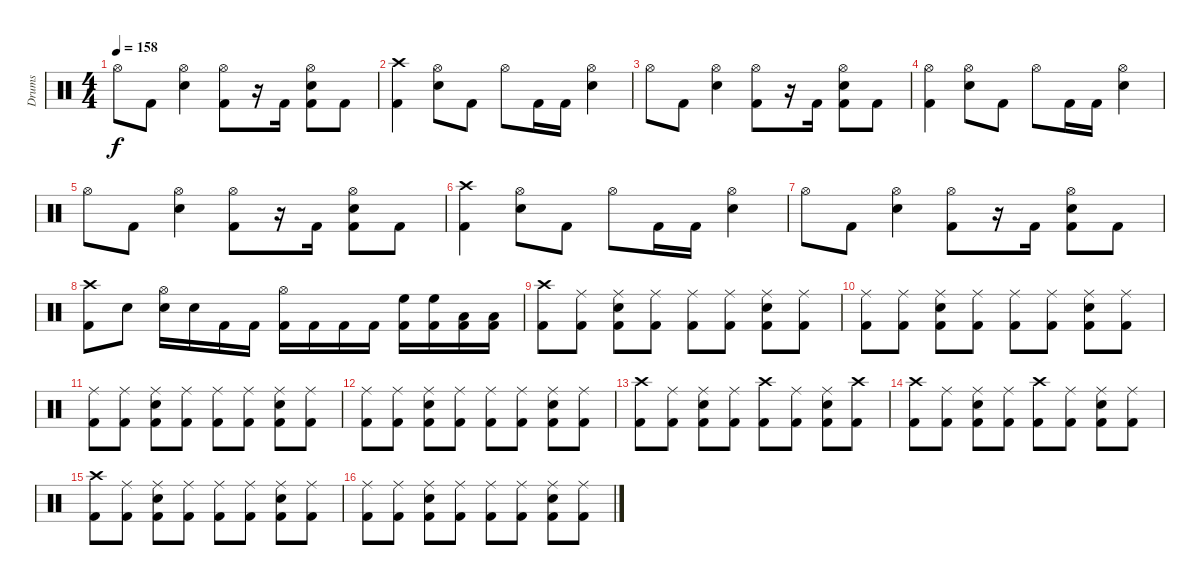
\track ("Drums" "Drums") {instrument percussion}
\staff {score}
\articulation defaults
\ts (4 4)
\tempo 158
\clef neutral
\ks c "Hi-Hat (open)".8{dy f} "Kick (hit) 2".8
("Hi-Hat (open)" "Snare (hit) 2").4 ("Hi-Hat (open)" "Kick (hit) 2").8 r.16 "Kick (hit) 2".16 ("Hi-Hat (open)" "Snare (hit) 2" "Kick (hit) 2").8 "Kick (hit) 2".8 |
("Crash high (hit)" "Kick (hit) 2").4 ("Hi-Hat (open)" "Snare (hit) 2").8 "Kick (hit) 2".8 "Hi-Hat (open)".8 "Kick (hit) 2".16 "Kick (hit) 2".16 ("Hi-Hat (open)" "Snare (hit) 2").4 |
"Hi-Hat (open)".8 "Kick (hit) 2".8 ("Hi-Hat (open)" "Snare (hit) 2").4 ("Hi-Hat (open)" "Kick (hit) 2").8 r.16 "Kick (hit) 2".16 ("Hi-Hat (open)" "Snare (hit) 2" "Kick (hit) 2").8 "Kick (hit) 2".8 |
("Hi-Hat (open)" "Kick (hit) 2").4 ("Hi-Hat (open)" "Snare (hit) 2").8 "Kick (hit) 2".8 "Hi-Hat (open)".8 "Kick (hit) 2".16 "Kick (hit) 2".16 ("Hi-Hat (open)" "Snare (hit) 2").4 |
"Hi-Hat (open)".8 "Kick (hit) 2".8 ("Hi-Hat (open)" "Snare (hit) 2").4 ("Hi-Hat (open)" "Kick (hit) 2").8 r.16 "Kick (hit) 2".16 ("Hi-Hat (open)" "Snare (hit) 2" "Kick (hit) 2").8 "Kick (hit) 2".8 |
("Crash high (hit)" "Kick (hit) 2").4 ("Hi-Hat (open)" "Snare (hit) 2").8 "Kick (hit) 2".8 "Hi-Hat (open)".8 "Kick (hit) 2".16 "Kick (hit) 2".16 ("Hi-Hat (open)" "Snare (hit) 2").4 |
"Hi-Hat (open)".8 "Kick (hit) 2".8 ("Hi-Hat (open)" "Snare (hit) 2").4 ("Hi-Hat (open)" "Kick (hit) 2").8 r.16 "Kick (hit) 2".16 ("Hi-Hat (open)" "Snare (hit) 2" "Kick (hit) 2").8 "Kick (hit) 2".8 |
("Crash high (hit)" "Kick (hit) 2").8 "Snare (hit) 2".8 ("Hi-Hat (open)" "Snare (hit) 2").16 "Snare (hit) 2".16 "Kick (hit) 2".16 "Kick (hit) 2".16 ("Hi-Hat (open)" "Kick (hit) 2").16 "Kick (hit) 2".16 "Kick (hit) 2".16 "Kick (hit) 2".16 ("High Floor Tom (hit)" "Kick (hit) 2").16 ("High Floor Tom (hit)" "Kick (hit) 2").16 ("Low Tom (hit)" "Kick (hit) 2").16 ("Low Tom (hit)" "Kick (hit) 2").16 |
("Crash high (hit)" "Kick (hit) 2").8 ("Ride (middle)" "Kick (hit) 2").8 ("Ride (middle)" "Snare (hit) 2" "Kick (hit) 2").8 ("Ride (middle)" "Kick (hit) 2").8 ("Ride (middle)" "Kick (hit) 2").8 ("Ride (middle)" "Kick (hit) 2").8 ("Ride (middle)" "Snare (hit) 2" "Kick (hit) 2").8 ("Ride (middle)" "Kick (hit) 2").8 |
("Ride (middle)" "Kick (hit) 2").8 ("Ride (middle)" "Kick (hit) 2").8 ("Ride (middle)" "Snare (hit) 2" "Kick (hit) 2").8 ("Ride (middle)" "Kick (hit) 2").8 ("Ride (middle)" "Kick (hit) 2").8 ("Ride (middle)" "Kick (hit) 2").8 ("Ride (middle)" "Snare (hit) 2" "Kick (hit) 2").8 ("Ride (middle)" "Kick (hit) 2").8 |
("Ride (middle)" "Kick (hit) 2").8 ("Ride (middle)" "Kick (hit) 2").8 ("Ride (middle)" "Snare (hit) 2" "Kick (hit) 2").8 ("Ride (middle)" "Kick (hit) 2").8 ("Ride (middle)" "Kick (hit) 2").8 ("Ride (middle)" "Kick (hit) 2").8 ("Ride (middle)" "Snare (hit) 2" "Kick (hit) 2").8 ("Ride (middle)" "Kick (hit) 2").8 |
("Ride (middle)" "Kick (hit) 2").8 ("Ride (middle)" "Kick (hit) 2").8 ("Ride (middle)" "Snare (hit) 2" "Kick (hit) 2").8 ("Ride (middle)" "Kick (hit) 2").8 ("Ride (middle)" "Kick (hit) 2").8 ("Ride (middle)" "Kick (hit) 2").8 ("Ride (middle)" "Snare (hit) 2" "Kick (hit) 2").8 ("Ride (middle)" "Kick (hit) 2").8 |
("Crash high (hit)" "Kick (hit) 2").8 ("Ride (middle)" "Kick (hit) 2").8 ("Ride (middle)" "Snare (hit) 2" "Kick (hit) 2").8 ("Ride (middle)" "Kick (hit) 2").8 ("Crash high (hit)" "Kick (hit) 2").8 ("Ride (middle)" "Kick (hit) 2").8 ("Ride (middle)" "Snare (hit) 2" "Kick (hit) 2").8 ("Crash high (hit)" "Kick (hit) 2").8 |
("Crash high (hit)" "Kick (hit) 2").8 ("Ride (middle)" "Kick (hit) 2").8 ("Ride (middle)" "Snare (hit) 2" "Kick (hit) 2").8 ("Ride (middle)" "Kick (hit) 2").8 ("Crash high (hit)" "Kick (hit) 2").8 ("Ride (middle)" "Kick (hit) 2").8 ("Ride (middle)" "Snare (hit) 2" "Kick (hit) 2").8 ("Ride (middle)" "Kick (hit) 2").8 |
("Crash high (hit)" "Kick (hit) 2").8 ("Ride (middle)" "Kick (hit) 2").8 ("Ride (middle)" "Snare (hit) 2" "Kick (hit) 2").8 ("Ride (middle)" "Kick (hit) 2").8 ("Ride (middle)" "Kick (hit) 2").8 ("Ride (middle)" "Kick (hit) 2").8 ("Ride (middle)" "Snare (hit) 2" "Kick (hit) 2").8 ("Ride (middle)" "Kick (hit) 2").8 |
("Ride (middle)" "Kick (hit) 2").8 ("Ride (middle)" "Kick (hit) 2").8 ("Ride (middle)" "Snare (hit) 2" "Kick (hit) 2").8 ("Ride (middle)" "Kick (hit) 2").8 ("Ride (middle)" "Kick (hit) 2").8 ("Ride (middle)" "Kick (hit) 2").8 ("Ride (middle)" "Snare (hit) 2" "Kick (hit) 2").8 ("Ride (middle)" "Kick (hit) 2").8
